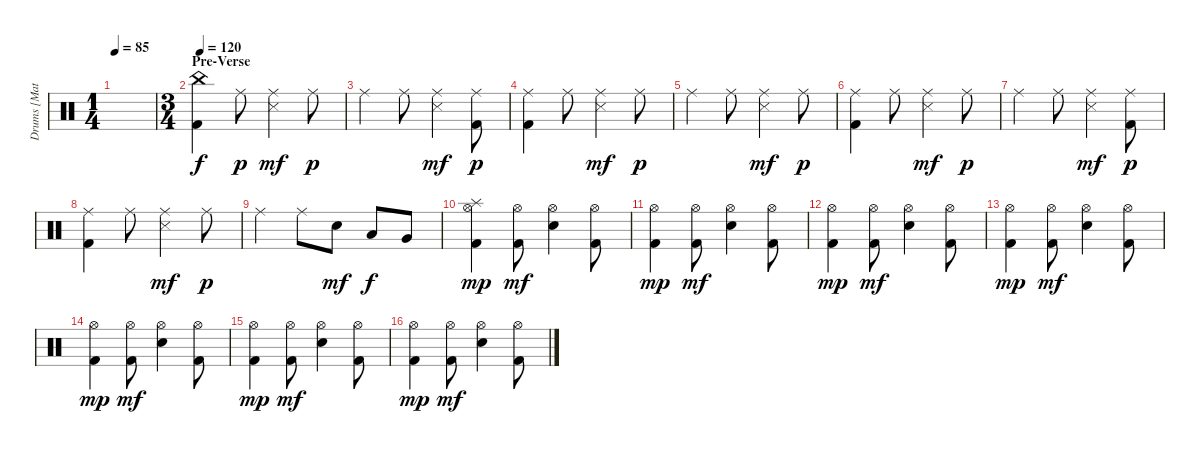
\track ("Drums [Matt]" "Drums [Mat") {instrument percussion}
\staff {score}
\articulation defaults
\ts (1 4)
\tempo 85
\clef neutral
\ks c
|
\ts (3 4)
\section ("" "Pre-Verse")
\tempo 120
("China (hit)" "Kick (hit) 2").4 "Ride (middle)".8{dy p} ("Ride (middle)" "Snare (side stick) 3").4{dy mf} "Ride (middle)".8{dy p} |
"Ride (middle)".4 "Ride (middle)".8 ("Ride (middle)" "Snare (side stick) 3").4{dy mf} ("Ride (middle)" "Kick (hit) 2").8{dy p} |
("Ride (middle)" "Kick (hit) 2").4 "Ride (middle)".8 ("Ride (middle)" "Snare (side stick) 3").4{dy mf} "Ride (middle)".8{dy p} |
"Ride (middle)".4 "Ride (middle)".8 ("Ride (middle)" "Snare (side stick) 3").4{dy mf} "Ride (middle)".8{dy p} |
("Ride (middle)" "Kick (hit) 2").4 "Ride (middle)".8 ("Ride (middle)" "Snare (side stick) 3").4{dy mf} "Ride (middle)".8{dy p} |
"Ride (middle)".4 "Ride (middle)".8 ("Ride (middle)" "Snare (side stick) 3").4{dy mf} ("Ride (middle)" "Kick (hit) 2").8{dy p} |
("Ride (middle)" "Kick (hit) 2").4 "Ride (middle)".8 ("Ride (middle)" "Snare (side stick) 3").4{dy mf} "Ride (middle)".8{dy p} |
"Ride (middle)".4 "Ride (middle)".8 "Snare (hit) 2".8{dy mf} "Low Tom (hit)".8{dy f} "Very Low Tom (hit)".8 |
("Splash (hit)" "Hi-Hat (open)" "Kick (hit) 2").4{dy mp} ("Hi-Hat (open)" "Kick (hit) 2").8{dy mf} ("Hi-Hat (open)" "Snare (hit) 2").4 ("Hi-Hat (open)" "Kick (hit) 2").8 |
("Hi-Hat (open)" "Kick (hit) 2").4{dy mp} ("Hi-Hat (open)" "Kick (hit) 2").8{dy mf} ("Hi-Hat (open)" "Snare (hit) 2").4 ("Hi-Hat (open)" "Kick (hit) 2").8 |
("Hi-Hat (open)" "Kick (hit) 2").4{dy mp} ("Hi-Hat (open)" "Kick (hit) 2").8{dy mf} ("Hi-Hat (open)" "Snare (hit) 2").4 ("Hi-Hat (open)" "Kick (hit) 2").8 |
("Hi-Hat (open)" "Kick (hit) 2").4{dy mp} ("Hi-Hat (open)" "Kick (hit) 2").8{dy mf} ("Hi-Hat (open)" "Snare (hit) 2").4 ("Hi-Hat (open)" "Kick (hit) 2").8 |
("Hi-Hat (open)" "Kick (hit) 2").4{dy mp} ("Hi-Hat (open)" "Kick (hit) 2").8{dy mf} ("Hi-Hat (open)" "Snare (hit) 2").4 ("Hi-Hat (open)" "Kick (hit) 2").8 |
("Hi-Hat (open)" "Kick (hit) 2").4{dy mp} ("Hi-Hat (open)" "Kick (hit) 2").8{dy mf} ("Hi-Hat (open)" "Snare (hit) 2").4 ("Hi-Hat (open)" "Kick (hit) 2").8 |
("Hi-Hat (open)" "Kick (hit) 2").4{dy mp} ("Hi-Hat (open)" "Kick (hit) 2").8{dy mf} ("Hi-Hat (open)" "Snare (hit) 2").4 ("Hi-Hat (open)" "Kick (hit) 2").8
